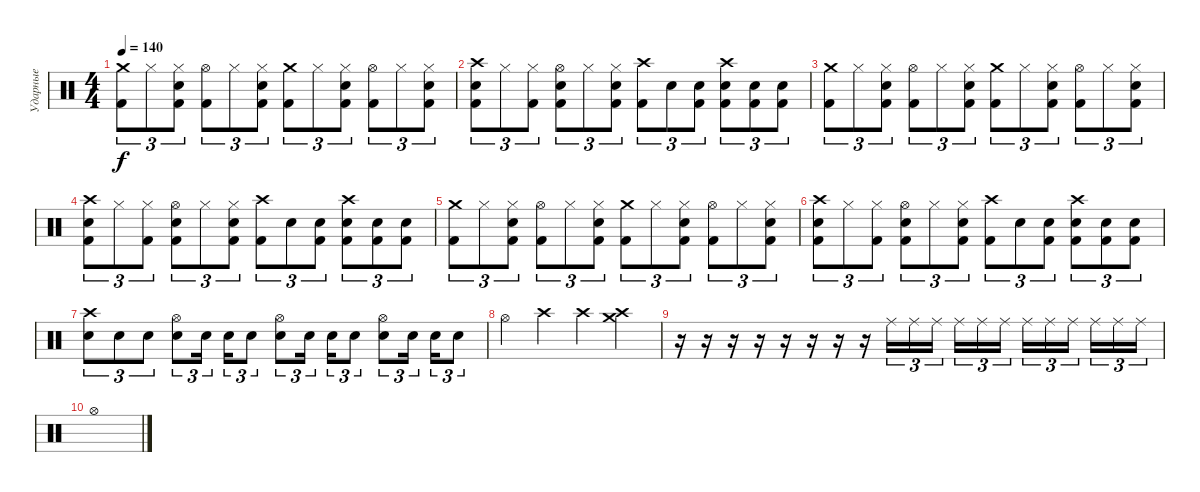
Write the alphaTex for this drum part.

\track ("Ударные" "Ударные") {instrument percussion}
\staff {score}
\articulation defaults
\ts (4 4)
\tempo 140
\clef neutral
\ks c
("Crash medium (hit)" "Kick (hit) 2").8{tu (3 2) dy f} "Hi-Hat (closed)".8{tu (3 2)} ("Hi-Hat (closed)" "Snare (hit) 2" "Kick (hit) 2").8{tu (3 2)} ("Hi-Hat (open)" "Kick (hit) 2").8{tu (3 2)} "Hi-Hat (closed)".8{tu (3 2)} ("Hi-Hat (closed)" "Snare (hit) 2" "Kick (hit) 2").8{tu (3 2)} ("Crash medium (hit)" "Kick (hit) 2").8{tu (3 2)} "Hi-Hat (closed)".8{tu (3 2)} ("Hi-Hat (closed)" "Snare (hit) 2" "Kick (hit) 2").8{tu (3 2)} ("Hi-Hat (open)" "Kick (hit) 2").8{tu (3 2)} "Hi-Hat (closed)".8{tu (3 2)} ("Hi-Hat (closed)" "Snare (hit) 2" "Kick (hit) 2").8{tu (3 2)} |
("Crash high (hit)" "Snare (hit) 2" "Kick (hit) 2").8{tu (3 2)} "Hi-Hat (closed)".8{tu (3 2)} ("Hi-Hat (closed)" "Kick (hit) 2").8{tu (3 2)} ("Hi-Hat (open)" "Snare (hit) 2" "Kick (hit) 2").8{tu (3 2)} "Hi-Hat (closed)".8{tu (3 2)} ("Hi-Hat (closed)" "Snare (hit) 2" "Kick (hit) 2").8{tu (3 2)} ("Crash high (hit)" "Kick (hit) 2").8{tu (3 2)} "Snare (hit) 2".8{tu (3 2)} ("Snare (hit) 2" "Kick (hit) 2").8{tu (3 2)} ("Crash high (hit)" "Snare (hit) 2" "Kick (hit) 2").8{tu (3 2)} ("Snare (hit) 2" "Kick (hit) 2").8{tu (3 2)} ("Snare (hit) 2" "Kick (hit) 2").8{tu (3 2)} |
("Crash medium (hit)" "Kick (hit) 2").8{tu (3 2)} "Hi-Hat (closed)".8{tu (3 2)} ("Hi-Hat (closed)" "Snare (hit) 2" "Kick (hit) 2").8{tu (3 2)} ("Hi-Hat (open)" "Kick (hit) 2").8{tu (3 2)} "Hi-Hat (closed)".8{tu (3 2)} ("Hi-Hat (closed)" "Snare (hit) 2" "Kick (hit) 2").8{tu (3 2)} ("Crash medium (hit)" "Kick (hit) 2").8{tu (3 2)} "Hi-Hat (closed)".8{tu (3 2)} ("Hi-Hat (closed)" "Snare (hit) 2" "Kick (hit) 2").8{tu (3 2)} ("Hi-Hat (open)" "Kick (hit) 2").8{tu (3 2)} "Hi-Hat (closed)".8{tu (3 2)} ("Hi-Hat (closed)" "Snare (hit) 2" "Kick (hit) 2").8{tu (3 2)} |
("Crash high (hit)" "Snare (hit) 2" "Kick (hit) 2").8{tu (3 2)} "Hi-Hat (closed)".8{tu (3 2)} ("Hi-Hat (closed)" "Kick (hit) 2").8{tu (3 2)} ("Hi-Hat (open)" "Snare (hit) 2" "Kick (hit) 2").8{tu (3 2)} "Hi-Hat (closed)".8{tu (3 2)} ("Hi-Hat (closed)" "Snare (hit) 2" "Kick (hit) 2").8{tu (3 2)} ("Crash high (hit)" "Kick (hit) 2").8{tu (3 2)} "Snare (hit) 2".8{tu (3 2)} ("Snare (hit) 2" "Kick (hit) 2").8{tu (3 2)} ("Crash high (hit)" "Snare (hit) 2" "Kick (hit) 2").8{tu (3 2)} ("Snare (hit) 2" "Kick (hit) 2").8{tu (3 2)} ("Snare (hit) 2" "Kick (hit) 2").8{tu (3 2)} |
("Crash medium (hit)" "Kick (hit) 2").8{tu (3 2)} "Hi-Hat (closed)".8{tu (3 2)} ("Hi-Hat (closed)" "Snare (hit) 2" "Kick (hit) 2").8{tu (3 2)} ("Hi-Hat (open)" "Kick (hit) 2").8{tu (3 2)} "Hi-Hat (closed)".8{tu (3 2)} ("Hi-Hat (closed)" "Snare (hit) 2" "Kick (hit) 2").8{tu (3 2)} ("Crash medium (hit)" "Kick (hit) 2").8{tu (3 2)} "Hi-Hat (closed)".8{tu (3 2)} ("Hi-Hat (closed)" "Snare (hit) 2" "Kick (hit) 2").8{tu (3 2)} ("Hi-Hat (open)" "Kick (hit) 2").8{tu (3 2)} "Hi-Hat (closed)".8{tu (3 2)} ("Hi-Hat (closed)" "Snare (hit) 2" "Kick (hit) 2").8{tu (3 2)} |
("Crash high (hit)" "Snare (hit) 2" "Kick (hit) 2").8{tu (3 2)} "Hi-Hat (closed)".8{tu (3 2)} ("Hi-Hat (closed)" "Kick (hit) 2").8{tu (3 2)} ("Hi-Hat (open)" "Snare (hit) 2" "Kick (hit) 2").8{tu (3 2)} "Hi-Hat (closed)".8{tu (3 2)} ("Hi-Hat (closed)" "Snare (hit) 2" "Kick (hit) 2").8{tu (3 2)} ("Crash high (hit)" "Kick (hit) 2").8{tu (3 2)} "Snare (hit) 2".8{tu (3 2)} ("Snare (hit) 2" "Kick (hit) 2").8{tu (3 2)} ("Crash high (hit)" "Snare (hit) 2" "Kick (hit) 2").8{tu (3 2)} ("Snare (hit) 2" "Kick (hit) 2").8{tu (3 2)} ("Snare (hit) 2" "Kick (hit) 2").8{tu (3 2)} |
("Crash high (hit)" "Snare (hit) 2").8{tu (3 2)} "Snare (hit) 2".8{tu (3 2)} "Snare (hit) 2".8{tu (3 2)} ("Hi-Hat (open)" "Snare (hit) 2").8{tu (3 2)} "Snare (hit) 2".16{tu (3 2) beam splitsecondary} "Snare (hit) 2".16{tu (3 2)} "Snare (hit) 2".8{tu (3 2)} ("Hi-Hat (open)" "Snare (hit) 2").8{tu (3 2)} "Snare (hit) 2".16{tu (3 2) beam splitsecondary} "Snare (hit) 2".16{tu (3 2)} "Snare (hit) 2".8{tu (3 2)} ("Hi-Hat (open)" "Snare (hit) 2").8{tu (3 2)} "Snare (hit) 2".16{tu (3 2) beam splitsecondary} "Snare (hit) 2".16{tu (3 2)} "Snare (hit) 2".8{tu (3 2)} |
"Hi-Hat (open)".4 "Crash high (hit)".4 "Crash high (hit)".4 ("Crash medium (hit)" "Crash high (hit)").4 |
r.16 r.16 r.16 r.16 r.16 r.16 r.16 r.16 "Ride (middle)".16{tu (3 2)} "Ride (middle)".16{tu (3 2)} "Ride (middle)".16{tu (3 2) beam splitsecondary} "Ride (middle)".16{tu (3 2)} "Ride (middle)".16{tu (3 2)} "Ride (middle)".16{tu (3 2)} "Ride (middle)".16{tu (3 2)} "Ride (middle)".16{tu (3 2)} "Ride (middle)".16{tu (3 2) beam splitsecondary} "Ride (middle)".16{tu (3 2)} "Ride (middle)".16{tu (3 2)} "Ride (middle)".16{tu (3 2)} |
"Hi-Hat (open)".1
